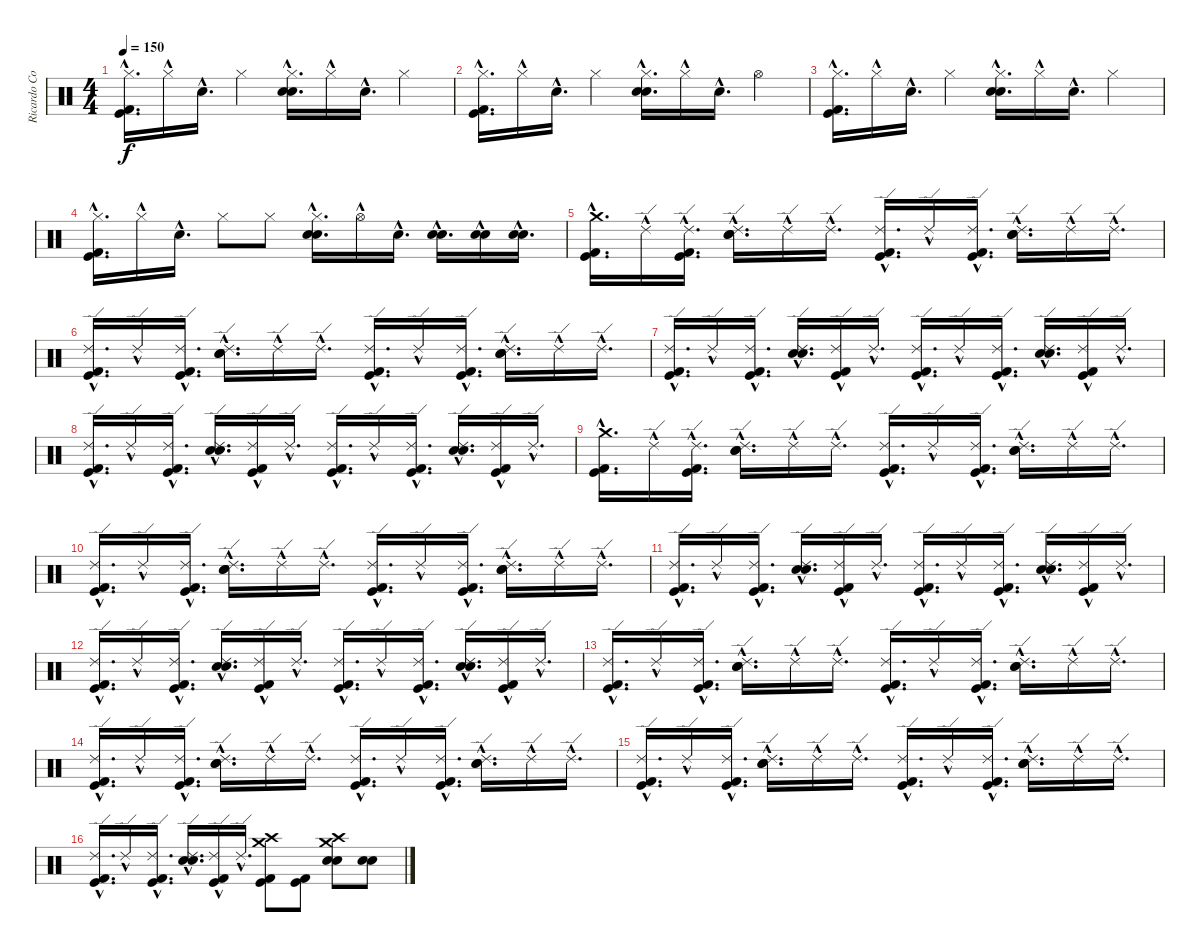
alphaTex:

\track ("Ricardo Confessori" "Ricardo Co") {instrument percussion}
\staff {score}
\articulation defaults
\ts (4 4)
\tempo 150
\clef neutral
\ks c
("Kick (hit) 2"{hac} "Kick (hit)"{hac} "Hi-Hat (closed)"{hac}).16{d dy f} "Hi-Hat (closed)"{hac}.16 "Snare (hit)"{hac}.16{d} "Hi-Hat (closed)".4 ("Electric Snare (hit)"{hac} "Snare (hit) 2"{hac} "Hi-Hat (closed)"{hac}).16{d} "Hi-Hat (closed)"{hac}.16 "Snare (hit)"{hac}.16{d} "Hi-Hat (closed)".4 |
("Kick (hit) 2"{hac} "Kick (hit)"{hac} "Hi-Hat (closed)"{hac}).16{d} "Hi-Hat (closed)"{hac}.16 "Snare (hit)"{hac}.16{d} "Hi-Hat (closed)".4 ("Hi-Hat (closed)"{hac} "Electric Snare (hit)"{hac} "Snare (hit) 2"{hac}).16{d} "Hi-Hat (closed)"{hac}.16 "Snare (hit)"{hac}.16{d} "Hi-Hat (open)".4 |
("Kick (hit) 2"{hac} "Kick (hit)"{hac} "Hi-Hat (closed)"{hac}).16{d} "Hi-Hat (closed)"{hac}.16 "Snare (hit)"{hac}.16{d} "Hi-Hat (closed)".4 ("Electric Snare (hit)"{hac} "Snare (hit) 2"{hac} "Hi-Hat (closed)"{hac}).16{d} "Hi-Hat (closed)"{hac}.16 "Snare (hit)"{hac}.16{d} "Hi-Hat (closed)".4 |
("Kick (hit) 2"{hac} "Kick (hit)"{hac} "Hi-Hat (closed)"{hac}).16{d} "Hi-Hat (closed)"{hac}.16 "Snare (hit)"{hac}.16{d} "Hi-Hat (closed)".8 "Hi-Hat (closed)".8 ("Electric Snare (hit)"{hac} "Snare (hit) 2"{hac} "Hi-Hat (closed)"{hac}).16{d} "Hi-Hat (open)"{hac}.16 "Snare (hit)"{hac}.16{d} ("Electric Snare (hit)"{hac} "Snare (hit) 2"{hac}).16{d} ("Electric Snare (hit)"{hac} "Snare (hit) 2"{hac}).16 ("Electric Snare (hit)"{hac} "Snare (hit) 2"{hac}).16{d} |
("Kick (hit)" "Kick (hit) 2" "Crash medium (hit)"{hac}).16{d} "Ride (edge) 2"{hac}.16 ("Kick (hit) 2"{hac} "Kick (hit)"{hac} "Ride (edge) 2"{hac}).16{d} ("Electric Snare (hit)" "Snare (hit) 2" "Ride (edge) 2"{hac}).16{d} "Ride (edge) 2"{hac}.16 "Ride (edge) 2"{hac}.16{d} ("Kick (hit) 2" "Kick (hit)" "Ride (edge) 2"{hac}).16{d} "Ride (edge) 2"{hac}.16 ("Kick (hit) 2"{hac} "Kick (hit)"{hac} "Ride (edge) 2"{hac}).16{d} ("Electric Snare (hit)" "Snare (hit) 2" "Ride (edge) 2"{hac}).16{d} "Ride (edge) 2"{hac}.16 "Ride (edge) 2"{hac}.16{d} |
("Ride (edge) 2"{hac} "Kick (hit)" "Kick (hit) 2").16{d} "Ride (edge) 2"{hac}.16 ("Kick (hit) 2"{hac} "Kick (hit)"{hac} "Ride (edge) 2"{hac}).16{d} ("Electric Snare (hit)" "Snare (hit) 2" "Ride (edge) 2"{hac}).16{d} "Ride (edge) 2"{hac}.16 "Ride (edge) 2"{hac}.16{d} ("Kick (hit) 2" "Kick (hit)" "Ride (edge) 2"{hac}).16{d} "Ride (edge) 2"{hac}.16 ("Kick (hit) 2"{hac} "Kick (hit)"{hac} "Ride (edge) 2"{hac}).16{d} ("Electric Snare (hit)" "Snare (hit) 2" "Ride (edge) 2"{hac}).16{d} "Ride (edge) 2"{hac}.16 "Ride (edge) 2"{hac}.16{d} |
("Ride (edge) 2"{hac} "Kick (hit)" "Kick (hit) 2").16{d} "Ride (edge) 2"{hac}.16 ("Kick (hit) 2"{hac} "Kick (hit)"{hac} "Ride (edge) 2"{hac}).16{d} ("Electric Snare (hit)" "Snare (hit) 2" "Ride (edge) 2"{hac}).16{d} ("Kick (hit) 2"{hac} "Kick (hit)"{hac} "Ride (edge) 2"{hac}).16 "Ride (edge) 2"{hac}.16{d} ("Kick (hit) 2" "Kick (hit)" "Ride (edge) 2"{hac}).16{d} "Ride (edge) 2"{hac}.16 ("Kick (hit) 2"{hac} "Kick (hit)"{hac} "Ride (edge) 2"{hac}).16{d} ("Electric Snare (hit)" "Snare (hit) 2" "Ride (edge) 2"{hac}).16{d} ("Kick (hit) 2"{hac} "Kick (hit)"{hac} "Ride (edge) 2"{hac}).16 "Ride (edge) 2"{hac}.16{d} |
("Ride (edge) 2"{hac} "Kick (hit)" "Kick (hit) 2").16{d} "Ride (edge) 2"{hac}.16 ("Kick (hit) 2"{hac} "Kick (hit)"{hac} "Ride (edge) 2"{hac}).16{d} ("Electric Snare (hit)" "Snare (hit) 2" "Ride (edge) 2"{hac}).16{d} ("Kick (hit) 2"{hac} "Kick (hit)"{hac} "Ride (edge) 2"{hac}).16 "Ride (edge) 2"{hac}.16{d} ("Kick (hit) 2" "Kick (hit)" "Ride (edge) 2"{hac}).16{d} "Ride (edge) 2"{hac}.16 ("Kick (hit) 2"{hac} "Kick (hit)"{hac} "Ride (edge) 2"{hac}).16{d} ("Electric Snare (hit)" "Snare (hit) 2" "Ride (edge) 2"{hac}).16{d} ("Kick (hit) 2"{hac} "Kick (hit)"{hac} "Ride (edge) 2"{hac}).16 "Ride (edge) 2"{hac}.16{d} |
("Kick (hit)" "Kick (hit) 2" "Crash medium (hit)"{hac}).16{d} "Ride (edge) 2"{hac}.16 ("Kick (hit) 2"{hac} "Kick (hit)"{hac} "Ride (edge) 2"{hac}).16{d} ("Electric Snare (hit)" "Snare (hit) 2" "Ride (edge) 2"{hac}).16{d} "Ride (edge) 2"{hac}.16 "Ride (edge) 2"{hac}.16{d} ("Kick (hit) 2" "Kick (hit)" "Ride (edge) 2"{hac}).16{d} "Ride (edge) 2"{hac}.16 ("Kick (hit) 2"{hac} "Kick (hit)"{hac} "Ride (edge) 2"{hac}).16{d} ("Electric Snare (hit)" "Snare (hit) 2" "Ride (edge) 2"{hac}).16{d} "Ride (edge) 2"{hac}.16 "Ride (edge) 2"{hac}.16{d} |
("Ride (edge) 2"{hac} "Kick (hit)" "Kick (hit) 2").16{d} "Ride (edge) 2"{hac}.16 ("Kick (hit) 2"{hac} "Kick (hit)"{hac} "Ride (edge) 2"{hac}).16{d} ("Electric Snare (hit)" "Snare (hit) 2" "Ride (edge) 2"{hac}).16{d} "Ride (edge) 2"{hac}.16 "Ride (edge) 2"{hac}.16{d} ("Kick (hit) 2" "Kick (hit)" "Ride (edge) 2"{hac}).16{d} "Ride (edge) 2"{hac}.16 ("Kick (hit) 2"{hac} "Kick (hit)"{hac} "Ride (edge) 2"{hac}).16{d} ("Electric Snare (hit)" "Snare (hit) 2" "Ride (edge) 2"{hac}).16{d} "Ride (edge) 2"{hac}.16 "Ride (edge) 2"{hac}.16{d} |
("Ride (edge) 2"{hac} "Kick (hit)" "Kick (hit) 2").16{d} "Ride (edge) 2"{hac}.16 ("Kick (hit)"{hac} "Kick (hit) 2"{hac} "Ride (edge) 2"{hac}).16{d} ("Electric Snare (hit)" "Snare (hit) 2" "Ride (edge) 2"{hac}).16{d} ("Kick (hit) 2"{hac} "Kick (hit)"{hac} "Ride (edge) 2"{hac}).16 "Ride (edge) 2"{hac}.16{d} ("Kick (hit) 2" "Kick (hit)" "Ride (edge) 2"{hac}).16{d} "Ride (edge) 2"{hac}.16 ("Kick (hit) 2"{hac} "Kick (hit)"{hac} "Ride (edge) 2"{hac}).16{d} ("Electric Snare (hit)" "Snare (hit) 2" "Ride (edge) 2"{hac}).16{d} ("Kick (hit) 2"{hac} "Kick (hit)"{hac} "Ride (edge) 2"{hac}).16 "Ride (edge) 2"{hac}.16{d} |
("Ride (edge) 2"{hac} "Kick (hit)" "Kick (hit) 2").16{d} "Ride (edge) 2"{hac}.16 ("Kick (hit) 2"{hac} "Kick (hit)"{hac} "Ride (edge) 2"{hac}).16{d} ("Electric Snare (hit)" "Snare (hit) 2" "Ride (edge) 2"{hac}).16{d} ("Kick (hit) 2"{hac} "Kick (hit)"{hac} "Ride (edge) 2"{hac}).16 "Ride (edge) 2"{hac}.16{d} ("Kick (hit) 2" "Kick (hit)" "Ride (edge) 2"{hac}).16{d} "Ride (edge) 2"{hac}.16 ("Kick (hit)"{hac} "Kick (hit) 2"{hac} "Ride (edge) 2"{hac}).16{d} ("Electric Snare (hit)" "Snare (hit) 2" "Ride (edge) 2"{hac}).16{d} ("Kick (hit) 2"{hac} "Kick (hit)"{hac} "Ride (edge) 2"{hac}).16 "Ride (edge) 2"{hac}.16{d} |
("Ride (edge) 2"{hac} "Kick (hit)" "Kick (hit) 2").16{d} "Ride (edge) 2"{hac}.16 ("Kick (hit) 2"{hac} "Kick (hit)"{hac} "Ride (edge) 2"{hac}).16{d} ("Electric Snare (hit)" "Snare (hit) 2" "Ride (edge) 2"{hac}).16{d} "Ride (edge) 2"{hac}.16 "Ride (edge) 2"{hac}.16{d} ("Kick (hit) 2" "Kick (hit)" "Ride (edge) 2"{hac}).16{d} "Ride (edge) 2"{hac}.16 ("Kick (hit) 2"{hac} "Kick (hit)"{hac} "Ride (edge) 2"{hac}).16{d} ("Electric Snare (hit)" "Snare (hit) 2" "Ride (edge) 2"{hac}).16{d} "Ride (edge) 2"{hac}.16 "Ride (edge) 2"{hac}.16{d} |
("Ride (edge) 2"{hac} "Kick (hit)" "Kick (hit) 2").16{d} "Ride (edge) 2"{hac}.16 ("Kick (hit) 2"{hac} "Kick (hit)"{hac} "Ride (edge) 2"{hac}).16{d} ("Electric Snare (hit)" "Snare (hit) 2" "Ride (edge) 2"{hac}).16{d} "Ride (edge) 2"{hac}.16 "Ride (edge) 2"{hac}.16{d} ("Kick (hit) 2" "Kick (hit)" "Ride (edge) 2"{hac}).16{d} "Ride (edge) 2"{hac}.16 ("Kick (hit) 2"{hac} "Kick (hit)"{hac} "Ride (edge) 2"{hac}).16{d} ("Electric Snare (hit)" "Snare (hit) 2" "Ride (edge) 2"{hac}).16{d} "Ride (edge) 2"{hac}.16 "Ride (edge) 2"{hac}.16{d} |
("Kick (hit) 2"{hac} "Kick (hit)"{hac} "Ride (edge) 2"{hac}).16{d} "Ride (edge) 2"{hac}.16 ("Kick (hit) 2"{hac} "Kick (hit)"{hac} "Ride (edge) 2"{hac}).16{d} ("Electric Snare (hit)" "Snare (hit) 2" "Ride (edge) 2"{hac}).16{d} "Ride (edge) 2"{hac}.16 "Ride (edge) 2"{hac}.16{d} ("Kick (hit) 2" "Kick (hit)" "Ride (edge) 2"{hac}).16{d} "Ride (edge) 2"{hac}.16 ("Kick (hit) 2"{hac} "Kick (hit)"{hac} "Ride (edge) 2"{hac}).16{d} ("Electric Snare (hit)" "Snare (hit) 2" "Ride (edge) 2"{hac}).16{d} "Ride (edge) 2"{hac}.16 "Ride (edge) 2"{hac}.16{d} |
("Ride (edge) 2"{hac} "Kick (hit)" "Kick (hit) 2").16{d} "Ride (edge) 2"{hac}.16 ("Kick (hit) 2"{hac} "Kick (hit)"{hac} "Ride (edge) 2"{hac}).16{d} ("Electric Snare (hit)" "Snare (hit) 2" "Ride (edge) 2"{hac}).16{d} ("Kick (hit) 2"{hac} "Kick (hit)"{hac} "Ride (edge) 2"{hac}).16 "Ride (edge) 2"{hac}.16{d} ("Crash high (hit)" "Crash medium (hit)" "Kick (hit) 2" "Kick (hit)").8 ("Kick (hit) 2" "Kick (hit)").8 ("Crash high (hit)" "Crash medium (hit)" "Electric Snare (hit)" "Snare (hit) 2").8 ("Electric Snare (hit)" "Snare (hit) 2").8
